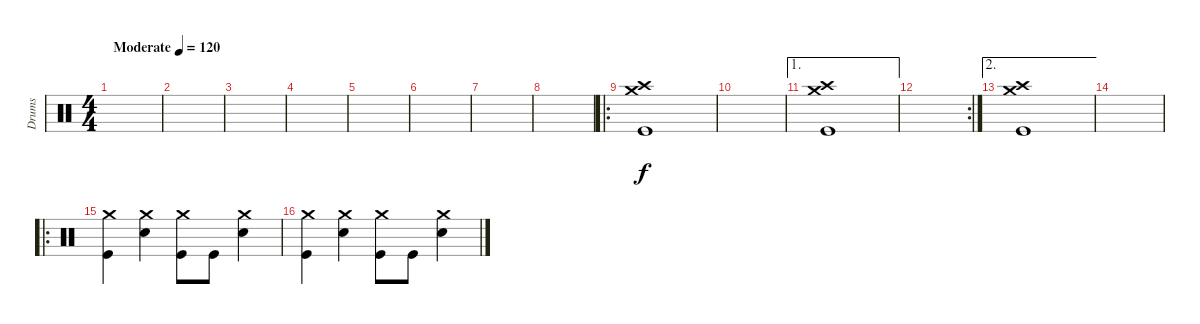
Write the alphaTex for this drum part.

\track ("Drums" "Drums") {instrument percussion}
\staff {score}
\articulation defaults
\ts (4 4)
\tempo (120 "Moderate")
\clef neutral
\ks c
|
|
|
|
|
|
|
|
\ro
("Crash high (hit)" "Crash medium (hit)" "Kick (hit)").1 |
|
\ae 1
("Crash high (hit)" "Crash medium (hit)" "Kick (hit)").1 |
\rc 2
|
\ae 2
("Crash high (hit)" "Crash medium (hit)" "Kick (hit)").1 |
|
\ro
("Crash medium (hit)" "Kick (hit)").4 ("Crash medium (hit)" "Snare (hit) 2").4 ("Crash medium (hit)" "Kick (hit)").8 "Kick (hit)".8 ("Crash medium (hit)" "Snare (hit) 2").4 |
("Crash medium (hit)" "Kick (hit)").4 ("Crash medium (hit)" "Snare (hit) 2").4 ("Crash medium (hit)" "Kick (hit)").8 "Kick (hit)".8 ("Crash medium (hit)" "Snare (hit) 2").4
